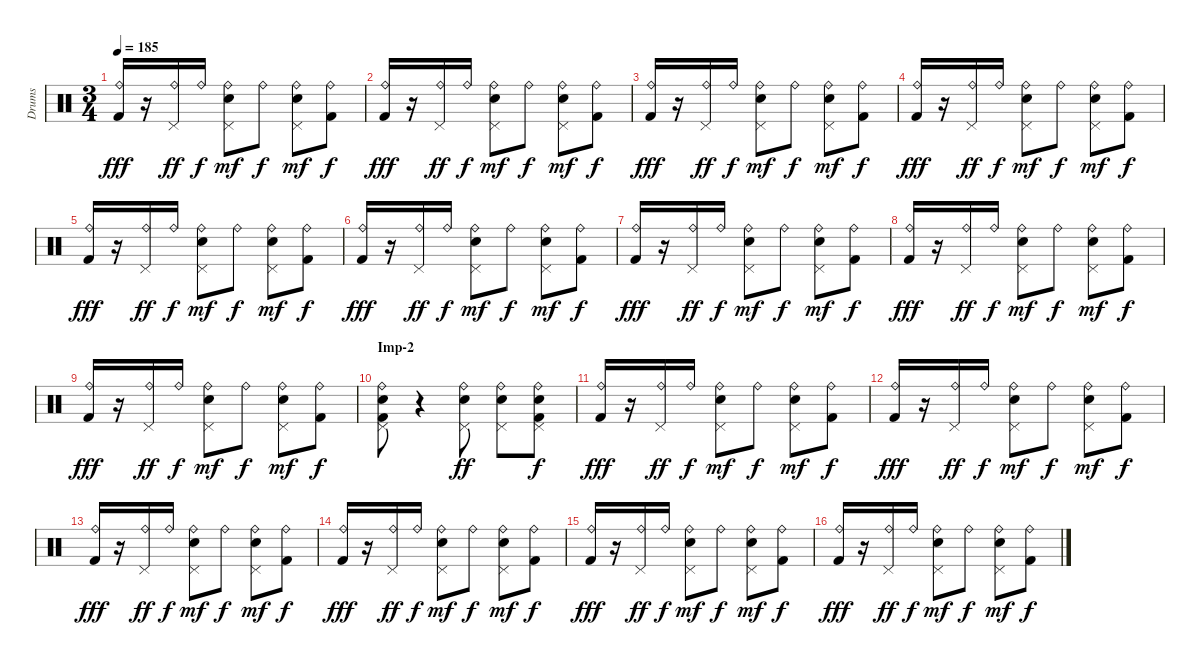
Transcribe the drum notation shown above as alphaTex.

\track ("Drums" "Drums") {instrument percussion}
\staff {score}
\articulation defaults
\ts (3 4)
\tempo 185
\clef neutral
\ks c
("Ride (bell)" "Kick (hit) 2").16{dy fff} r.16 ("Ride (bell)" "Pedal Hi-Hat (hit)").16{dy ff} "Ride (bell)".16{dy f} ("Ride (bell)" "Pedal Hi-Hat (hit)" "Electric Snare (hit)").8{dy mf} "Ride (bell)".8{dy f} ("Ride (bell)" "Pedal Hi-Hat (hit)" "Electric Snare (hit)").8{dy mf} ("Ride (bell)" "Kick (hit) 2").8{dy f} |
("Ride (bell)" "Kick (hit) 2").16{dy fff} r.16 ("Ride (bell)" "Pedal Hi-Hat (hit)").16{dy ff} "Ride (bell)".16{dy f} ("Ride (bell)" "Pedal Hi-Hat (hit)" "Electric Snare (hit)").8{dy mf} "Ride (bell)".8{dy f} ("Ride (bell)" "Pedal Hi-Hat (hit)" "Electric Snare (hit)").8{dy mf} ("Ride (bell)" "Kick (hit) 2").8{dy f} |
("Ride (bell)" "Kick (hit) 2").16{dy fff} r.16 ("Ride (bell)" "Pedal Hi-Hat (hit)").16{dy ff} "Ride (bell)".16{dy f} ("Ride (bell)" "Pedal Hi-Hat (hit)" "Electric Snare (hit)").8{dy mf} "Ride (bell)".8{dy f} ("Ride (bell)" "Pedal Hi-Hat (hit)" "Electric Snare (hit)").8{dy mf} ("Ride (bell)" "Kick (hit) 2").8{dy f} |
("Ride (bell)" "Kick (hit) 2").16{dy fff} r.16 ("Ride (bell)" "Pedal Hi-Hat (hit)").16{dy ff} "Ride (bell)".16{dy f} ("Ride (bell)" "Pedal Hi-Hat (hit)" "Electric Snare (hit)").8{dy mf} "Ride (bell)".8{dy f} ("Ride (bell)" "Pedal Hi-Hat (hit)" "Electric Snare (hit)").8{dy mf} ("Ride (bell)" "Kick (hit) 2").8{dy f} |
("Ride (bell)" "Kick (hit) 2").16{dy fff} r.16 ("Ride (bell)" "Pedal Hi-Hat (hit)").16{dy ff} "Ride (bell)".16{dy f} ("Ride (bell)" "Pedal Hi-Hat (hit)" "Electric Snare (hit)").8{dy mf} "Ride (bell)".8{dy f} ("Ride (bell)" "Pedal Hi-Hat (hit)" "Electric Snare (hit)").8{dy mf} ("Ride (bell)" "Kick (hit) 2").8{dy f} |
("Ride (bell)" "Kick (hit) 2").16{dy fff} r.16 ("Ride (bell)" "Pedal Hi-Hat (hit)").16{dy ff} "Ride (bell)".16{dy f} ("Ride (bell)" "Pedal Hi-Hat (hit)" "Electric Snare (hit)").8{dy mf} "Ride (bell)".8{dy f} ("Ride (bell)" "Pedal Hi-Hat (hit)" "Electric Snare (hit)").8{dy mf} ("Ride (bell)" "Kick (hit) 2").8{dy f} |
("Ride (bell)" "Kick (hit) 2").16{dy fff} r.16 ("Ride (bell)" "Pedal Hi-Hat (hit)").16{dy ff} "Ride (bell)".16{dy f} ("Ride (bell)" "Pedal Hi-Hat (hit)" "Electric Snare (hit)").8{dy mf} "Ride (bell)".8{dy f} ("Ride (bell)" "Pedal Hi-Hat (hit)" "Electric Snare (hit)").8{dy mf} ("Ride (bell)" "Kick (hit) 2").8{dy f} |
("Ride (bell)" "Kick (hit) 2").16{dy fff} r.16 ("Ride (bell)" "Pedal Hi-Hat (hit)").16{dy ff} "Ride (bell)".16{dy f} ("Ride (bell)" "Pedal Hi-Hat (hit)" "Electric Snare (hit)").8{dy mf} "Ride (bell)".8{dy f} ("Ride (bell)" "Pedal Hi-Hat (hit)" "Electric Snare (hit)").8{dy mf} ("Ride (bell)" "Kick (hit) 2").8{dy f} |
("Ride (bell)" "Kick (hit) 2").16{dy fff} r.16 ("Ride (bell)" "Pedal Hi-Hat (hit)").16{dy ff} "Ride (bell)".16{dy f} ("Ride (bell)" "Pedal Hi-Hat (hit)" "Electric Snare (hit)").8{dy mf} "Ride (bell)".8{dy f} ("Ride (bell)" "Pedal Hi-Hat (hit)" "Electric Snare (hit)").8{dy mf} ("Ride (bell)" "Kick (hit) 2").8{dy f} |
\section ("" "Imp-2")
("Ride (bell)" "Pedal Hi-Hat (hit)" "Electric Snare (hit)" "Kick (hit) 2").8 r.4 ("Ride (bell)" "Pedal Hi-Hat (hit)" "Electric Snare (hit)").8{dy ff} ("Ride (bell)" "Pedal Hi-Hat (hit)" "Electric Snare (hit)").8 ("Ride (bell)" "Pedal Hi-Hat (hit)" "Electric Snare (hit)" "Kick (hit) 2").8{dy f} |
("Ride (bell)" "Kick (hit) 2").16{dy fff} r.16 ("Ride (bell)" "Pedal Hi-Hat (hit)").16{dy ff} "Ride (bell)".16{dy f} ("Ride (bell)" "Pedal Hi-Hat (hit)" "Electric Snare (hit)").8{dy mf} "Ride (bell)".8{dy f} ("Ride (bell)" "Pedal Hi-Hat (hit)" "Electric Snare (hit)").8{dy mf} ("Ride (bell)" "Kick (hit) 2").8{dy f} |
("Ride (bell)" "Kick (hit) 2").16{dy fff} r.16 ("Ride (bell)" "Pedal Hi-Hat (hit)").16{dy ff} "Ride (bell)".16{dy f} ("Ride (bell)" "Pedal Hi-Hat (hit)" "Electric Snare (hit)").8{dy mf} "Ride (bell)".8{dy f} ("Ride (bell)" "Pedal Hi-Hat (hit)" "Electric Snare (hit)").8{dy mf} ("Ride (bell)" "Kick (hit) 2").8{dy f} |
("Ride (bell)" "Kick (hit) 2").16{dy fff} r.16 ("Ride (bell)" "Pedal Hi-Hat (hit)").16{dy ff} "Ride (bell)".16{dy f} ("Ride (bell)" "Pedal Hi-Hat (hit)" "Electric Snare (hit)").8{dy mf} "Ride (bell)".8{dy f} ("Ride (bell)" "Pedal Hi-Hat (hit)" "Electric Snare (hit)").8{dy mf} ("Ride (bell)" "Kick (hit) 2").8{dy f} |
("Ride (bell)" "Kick (hit) 2").16{dy fff} r.16 ("Ride (bell)" "Pedal Hi-Hat (hit)").16{dy ff} "Ride (bell)".16{dy f} ("Ride (bell)" "Pedal Hi-Hat (hit)" "Electric Snare (hit)").8{dy mf} "Ride (bell)".8{dy f} ("Ride (bell)" "Pedal Hi-Hat (hit)" "Electric Snare (hit)").8{dy mf} ("Ride (bell)" "Kick (hit) 2").8{dy f} |
("Ride (bell)" "Kick (hit) 2").16{dy fff} r.16 ("Ride (bell)" "Pedal Hi-Hat (hit)").16{dy ff} "Ride (bell)".16{dy f} ("Ride (bell)" "Pedal Hi-Hat (hit)" "Electric Snare (hit)").8{dy mf} "Ride (bell)".8{dy f} ("Ride (bell)" "Pedal Hi-Hat (hit)" "Electric Snare (hit)").8{dy mf} ("Ride (bell)" "Kick (hit) 2").8{dy f} |
("Ride (bell)" "Kick (hit) 2").16{dy fff} r.16 ("Ride (bell)" "Pedal Hi-Hat (hit)").16{dy ff} "Ride (bell)".16{dy f} ("Ride (bell)" "Pedal Hi-Hat (hit)" "Electric Snare (hit)").8{dy mf} "Ride (bell)".8{dy f} ("Ride (bell)" "Pedal Hi-Hat (hit)" "Electric Snare (hit)").8{dy mf} ("Ride (bell)" "Kick (hit) 2").8{dy f}
